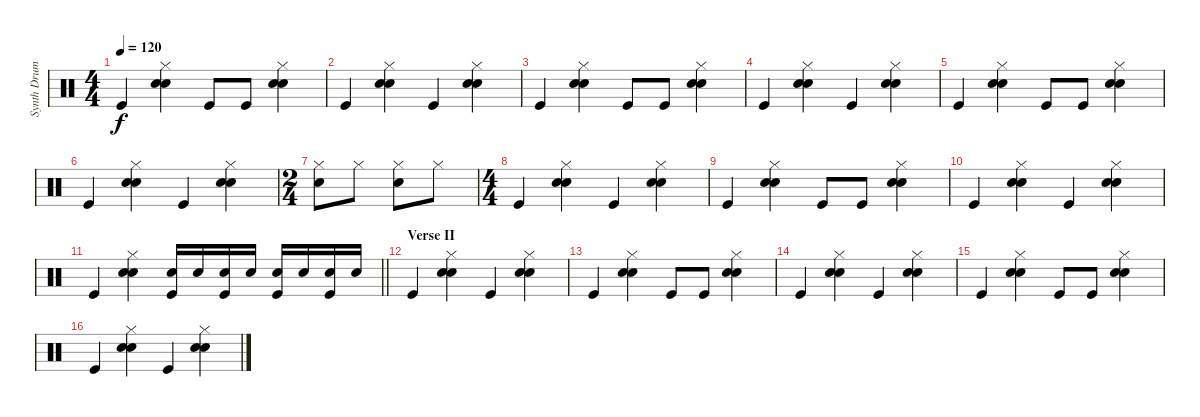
\track ("Synth Drums" "Synth Drum") {instrument percussion}
\staff {score}
\articulation defaults
\ts (4 4)
\tempo 120
\clef neutral
\ks c "Kick (hit)".4{dy f}
("Hi-Hat (closed)" "Snare (hit) 2" "Hand Clap (hit)").4 "Kick (hit)".8 "Kick (hit)".8 ("Hi-Hat (closed)" "Snare (hit) 2" "Hand Clap (hit)").4 |
"Kick (hit)".4 ("Hi-Hat (closed)" "Snare (hit) 2" "Hand Clap (hit)").4 "Kick (hit)".4 ("Hi-Hat (closed)" "Snare (hit) 2" "Hand Clap (hit)").4 |
"Kick (hit)".4 ("Hi-Hat (closed)" "Snare (hit) 2" "Hand Clap (hit)").4 "Kick (hit)".8 "Kick (hit)".8 ("Hi-Hat (closed)" "Snare (hit) 2" "Hand Clap (hit)").4 |
"Kick (hit)".4 ("Hi-Hat (closed)" "Snare (hit) 2" "Hand Clap (hit)").4 "Kick (hit)".4 ("Hi-Hat (closed)" "Snare (hit) 2" "Hand Clap (hit)").4 |
"Kick (hit)".4 ("Hi-Hat (closed)" "Snare (hit) 2" "Hand Clap (hit)").4 "Kick (hit)".8 "Kick (hit)".8 ("Hi-Hat (closed)" "Snare (hit) 2" "Hand Clap (hit)").4 |
"Kick (hit)".4 ("Hi-Hat (closed)" "Snare (hit) 2" "Hand Clap (hit)").4 "Kick (hit)".4 ("Hi-Hat (closed)" "Snare (hit) 2" "Hand Clap (hit)").4 |
\ts (2 4)
("Hi-Hat (closed)" "Snare (hit) 2").8 "Hi-Hat (closed)".8 ("Hi-Hat (closed)" "Snare (hit) 2").8 "Hi-Hat (closed)".8 |
\ts (4 4)
"Kick (hit)".4 ("Hi-Hat (closed)" "Snare (hit) 2" "Hand Clap (hit)").4 "Kick (hit)".4 ("Hi-Hat (closed)" "Snare (hit) 2" "Hand Clap (hit)").4 |
"Kick (hit)".4 ("Hi-Hat (closed)" "Snare (hit) 2" "Hand Clap (hit)").4 "Kick (hit)".8 "Kick (hit)".8 ("Hi-Hat (closed)" "Snare (hit) 2" "Hand Clap (hit)").4 |
"Kick (hit)".4 ("Hi-Hat (closed)" "Snare (hit) 2" "Hand Clap (hit)").4 "Kick (hit)".4 ("Hi-Hat (closed)" "Snare (hit) 2" "Hand Clap (hit)").4 |
\barLineRight lightlight "Kick (hit)".4
("Hi-Hat (closed)" "Snare (hit) 2" "Hand Clap (hit)").4 ("Electric Snare (hit)" "Kick (hit)").16 "Electric Snare (hit)".16 ("Electric Snare (hit)" "Kick (hit)").16 "Electric Snare (hit)".16 ("Electric Snare (hit)" "Kick (hit)").16 "Electric Snare (hit)".16 ("Electric Snare (hit)" "Kick (hit)").16 "Electric Snare (hit)".16 |
\section ("" "Verse II")
"Kick (hit)".4 ("Hi-Hat (closed)" "Snare (hit) 2" "Hand Clap (hit)").4 "Kick (hit)".4 ("Hi-Hat (closed)" "Snare (hit) 2" "Hand Clap (hit)").4 |
"Kick (hit)".4 ("Hi-Hat (closed)" "Snare (hit) 2" "Hand Clap (hit)").4 "Kick (hit)".8 "Kick (hit)".8 ("Hi-Hat (closed)" "Snare (hit) 2" "Hand Clap (hit)").4 |
"Kick (hit)".4 ("Hi-Hat (closed)" "Snare (hit) 2" "Hand Clap (hit)").4 "Kick (hit)".4 ("Hi-Hat (closed)" "Snare (hit) 2" "Hand Clap (hit)").4 |
"Kick (hit)".4 ("Hi-Hat (closed)" "Snare (hit) 2" "Hand Clap (hit)").4 "Kick (hit)".8 "Kick (hit)".8 ("Hi-Hat (closed)" "Snare (hit) 2" "Hand Clap (hit)").4 |
"Kick (hit)".4 ("Hi-Hat (closed)" "Snare (hit) 2" "Hand Clap (hit)").4 "Kick (hit)".4 ("Hi-Hat (closed)" "Snare (hit) 2" "Hand Clap (hit)").4
